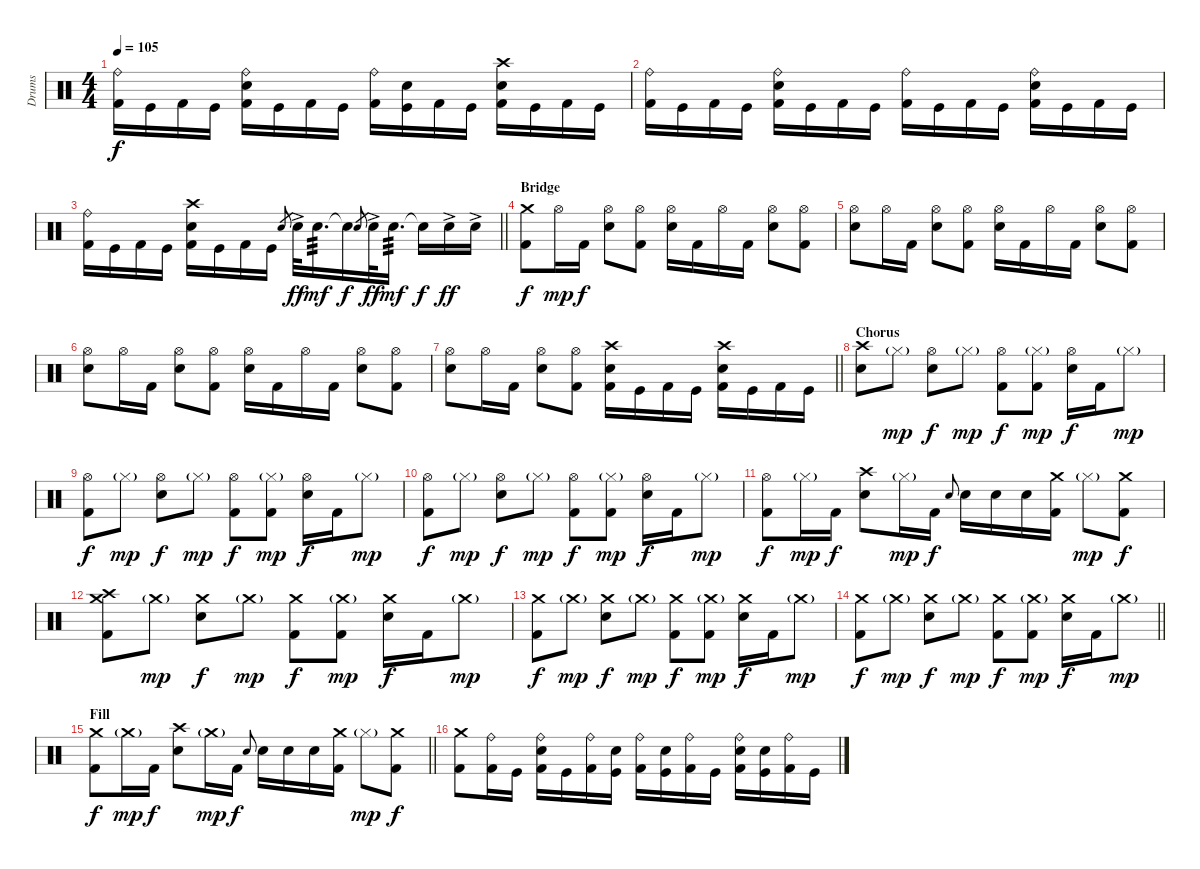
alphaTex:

\track ("Drums" "Drums") {instrument percussion}
\staff {score}
\articulation defaults
\ts (4 4)
\tempo 105
\clef neutral
\ks c
("Ride (bell)" "Kick (hit) 2").16{dy f} "Kick (hit)".16 "Kick (hit) 2".16 "Kick (hit)".16 ("Ride (bell)" "Snare (hit) 2" "Kick (hit) 2").16 "Kick (hit)".16 "Kick (hit) 2".16 "Kick (hit)".16 ("Ride (bell)" "Kick (hit) 2").16 ("Snare (hit) 2" "Kick (hit)").16 "Kick (hit) 2".16 "Kick (hit)".16 ("Crash high (hit)" "Snare (hit) 2" "Kick (hit) 2").16 "Kick (hit)".16 "Kick (hit) 2".16 "Kick (hit)".16 |
("Ride (bell)" "Kick (hit) 2").16 "Kick (hit)".16 "Kick (hit) 2".16 "Kick (hit)".16 ("Ride (bell)" "Snare (hit) 2" "Kick (hit) 2").16 "Kick (hit)".16 "Kick (hit) 2".16 "Kick (hit)".16 ("Ride (bell)" "Kick (hit) 2").16 "Kick (hit)".16 "Kick (hit) 2".16 "Kick (hit)".16 ("Ride (bell)" "Snare (hit) 2" "Kick (hit) 2").16 "Kick (hit)".16 "Kick (hit) 2".16 "Kick (hit)".16 |
\barLineRight lightlight
("Ride (bell)" "Kick (hit) 2").16 "Kick (hit)".16 "Kick (hit) 2".16 "Kick (hit)".16 ("Crash high (hit)" "Snare (hit) 2" "Kick (hit) 2").16 "Kick (hit)".16 "Kick (hit) 2".16 "Kick (hit)".16 "Snare (hit) 2".8{gr} "Snare (hit) 2"{ac}.32{dy ff} "Snare (hit) 2".16{d tp 3 dy mf} "Snare (hit)"{t}.16{dy f} "Snare (hit) 2".8{gr} "Snare (hit) 2"{ac}.32{dy ff} "Snare (hit) 2".16{d tp 3 dy mf} "Snare (hit)"{t}.16{dy f} "Snare (hit) 2"{ac}.16{dy ff} "Snare (hit) 2"{ac}.16 |
\section ("" "Bridge")
("Crash medium (hit)" "Kick (hit) 2").8{dy f} "Hi-Hat (open)".16{dy mp} "Kick (hit) 2".16{dy f} ("Hi-Hat (open)" "Snare (hit) 2").8 ("Hi-Hat (open)" "Kick (hit) 2").8 ("Hi-Hat (open)" "Snare (hit) 2").16 "Kick (hit) 2".16 "Hi-Hat (open)".16 "Kick (hit) 2".16 ("Hi-Hat (open)" "Snare (hit) 2").8 ("Hi-Hat (open)" "Kick (hit) 2").8 |
("Hi-Hat (open)" "Snare (hit) 2").8 "Hi-Hat (open)".16 "Kick (hit) 2".16 ("Hi-Hat (open)" "Snare (hit) 2").8 ("Hi-Hat (open)" "Kick (hit) 2").8 ("Hi-Hat (open)" "Snare (hit) 2").16 "Kick (hit) 2".16 "Hi-Hat (open)".16 "Kick (hit) 2".16 ("Hi-Hat (open)" "Snare (hit) 2").8 ("Hi-Hat (open)" "Kick (hit) 2").8 |
("Hi-Hat (open)" "Snare (hit) 2").8 "Hi-Hat (open)".16 "Kick (hit) 2".16 ("Hi-Hat (open)" "Snare (hit) 2").8 ("Hi-Hat (open)" "Kick (hit) 2").8 ("Hi-Hat (open)" "Snare (hit) 2").16 "Kick (hit) 2".16 "Hi-Hat (open)".16 "Kick (hit) 2".16 ("Hi-Hat (open)" "Snare (hit) 2").8 ("Hi-Hat (open)" "Kick (hit) 2").8 |
\barLineRight lightlight
("Hi-Hat (open)" "Snare (hit) 2").8 "Hi-Hat (open)".16 "Kick (hit) 2".16 ("Hi-Hat (open)" "Snare (hit) 2").8 ("Hi-Hat (open)" "Kick (hit) 2").8 ("Crash high (hit)" "Snare (hit) 2" "Kick (hit) 2").16 "Kick (hit)".16 "Kick (hit) 2".16 "Kick (hit)".16 ("Crash high (hit)" "Snare (hit) 2" "Kick (hit) 2").16 "Kick (hit)".16 "Kick (hit) 2".16 "Kick (hit)".16 |
\section ("" "Chorus")
("Crash high (hit)" "Snare (hit) 2").8 "Hi-Hat (closed)"{g}.8{dy mp} ("Hi-Hat (open)" "Snare (hit) 2").8{dy f} "Hi-Hat (closed)"{g}.8{dy mp} ("Hi-Hat (open)" "Kick (hit) 2").8{dy f} ("Hi-Hat (closed)"{g} "Kick (hit) 2").8{dy mp} ("Hi-Hat (open)" "Snare (hit) 2").16{dy f} "Kick (hit) 2".16 "Hi-Hat (closed)"{g}.8{dy mp} |
("Hi-Hat (open)" "Kick (hit) 2").8{dy f} "Hi-Hat (closed)"{g}.8{dy mp} ("Hi-Hat (open)" "Snare (hit) 2").8{dy f} "Hi-Hat (closed)"{g}.8{dy mp} ("Hi-Hat (open)" "Kick (hit) 2").8{dy f} ("Hi-Hat (closed)"{g} "Kick (hit) 2").8{dy mp} ("Hi-Hat (open)" "Snare (hit) 2").16{dy f} "Kick (hit) 2".16 "Hi-Hat (closed)"{g}.8{dy mp} |
("Hi-Hat (open)" "Kick (hit) 2").8{dy f} "Hi-Hat (closed)"{g}.8{dy mp} ("Hi-Hat (open)" "Snare (hit) 2").8{dy f} "Hi-Hat (closed)"{g}.8{dy mp} ("Hi-Hat (open)" "Kick (hit) 2").8{dy f} ("Hi-Hat (closed)"{g} "Kick (hit) 2").8{dy mp} ("Hi-Hat (open)" "Snare (hit) 2").16{dy f} "Kick (hit) 2".16 "Hi-Hat (closed)"{g}.8{dy mp} |
("Hi-Hat (open)" "Kick (hit) 2").8{dy f} "Hi-Hat (closed)"{g}.16{dy mp} "Kick (hit) 2".16{dy f} ("Crash high (hit)" "Snare (hit) 2").8 "Hi-Hat (closed)"{g}.16{dy mp} "Kick (hit) 2".16{dy f} "Electric Snare (hit)".8{gr onbeat} "Snare (hit) 2".16 "Snare (hit) 2".16 "Snare (hit) 2".16 ("Crash medium (hit)" "Kick (hit) 2").16 "Hi-Hat (closed)"{g}.8{dy mp} ("Crash medium (hit)" "Kick (hit) 2").8{dy f} |
("Crash medium (hit)" "Crash high (hit)" "Kick (hit) 2").8 "Crash medium (hit)"{g}.8{dy mp} ("Crash medium (hit)" "Snare (hit) 2").8{dy f} "Crash medium (hit)"{g}.8{dy mp} ("Crash medium (hit)" "Kick (hit) 2").8{dy f} ("Crash medium (hit)"{g} "Kick (hit) 2").8{dy mp} ("Crash medium (hit)" "Snare (hit) 2").16{dy f} "Kick (hit) 2".16 "Crash medium (hit)"{g}.8{dy mp} |
("Crash medium (hit)" "Kick (hit) 2").8{dy f} "Crash medium (hit)"{g}.8{dy mp} ("Crash medium (hit)" "Snare (hit) 2").8{dy f} "Crash medium (hit)"{g}.8{dy mp} ("Crash medium (hit)" "Kick (hit) 2").8{dy f} ("Crash medium (hit)"{g} "Kick (hit) 2").8{dy mp} ("Crash medium (hit)" "Snare (hit) 2").16{dy f} "Kick (hit) 2".16 "Crash medium (hit)"{g}.8{dy mp} |
\barLineRight lightlight
("Crash medium (hit)" "Kick (hit) 2").8{dy f} "Crash medium (hit)"{g}.8{dy mp} ("Crash medium (hit)" "Snare (hit) 2").8{dy f} "Crash medium (hit)"{g}.8{dy mp} ("Crash medium (hit)" "Kick (hit) 2").8{dy f} ("Crash medium (hit)"{g} "Kick (hit) 2").8{dy mp} ("Crash medium (hit)" "Snare (hit) 2").16{dy f} "Kick (hit) 2".16 "Crash medium (hit)"{g}.8{dy mp} |
\section ("" "Fill")
\barLineRight lightlight
("Crash medium (hit)" "Kick (hit) 2").8{dy f} "Crash medium (hit)"{g}.16{dy mp} "Kick (hit) 2".16{dy f} ("Crash high (hit)" "Snare (hit) 2").8 "Crash medium (hit)"{g}.16{dy mp} "Kick (hit) 2".16{dy f} "Electric Snare (hit)".8{gr onbeat} "Snare (hit) 2".16 "Snare (hit) 2".16 "Snare (hit) 2".16 ("Crash medium (hit)" "Kick (hit) 2").16 "Hi-Hat (closed)"{g}.8{dy mp} ("Crash medium (hit)" "Kick (hit) 2").8{dy f} |
("Crash medium (hit)" "Kick (hit) 2").8 ("Ride (bell)" "Kick (hit) 2").16 "Kick (hit)".16 ("Ride (bell)" "Snare (hit) 2" "Kick (hit) 2").16 "Kick (hit)".16 ("Ride (bell)" "Kick (hit) 2").16 ("Snare (hit) 2" "Kick (hit)").16 ("Ride (bell)" "Kick (hit) 2").16 ("Snare (hit) 2" "Kick (hit)").16 ("Ride (bell)" "Kick (hit) 2").16 "Kick (hit)".16 ("Ride (bell)" "Snare (hit) 2" "Kick (hit) 2").16 ("Snare (hit) 2" "Kick (hit)").16 ("Ride (bell)" "Kick (hit) 2").16 "Kick (hit)".16
